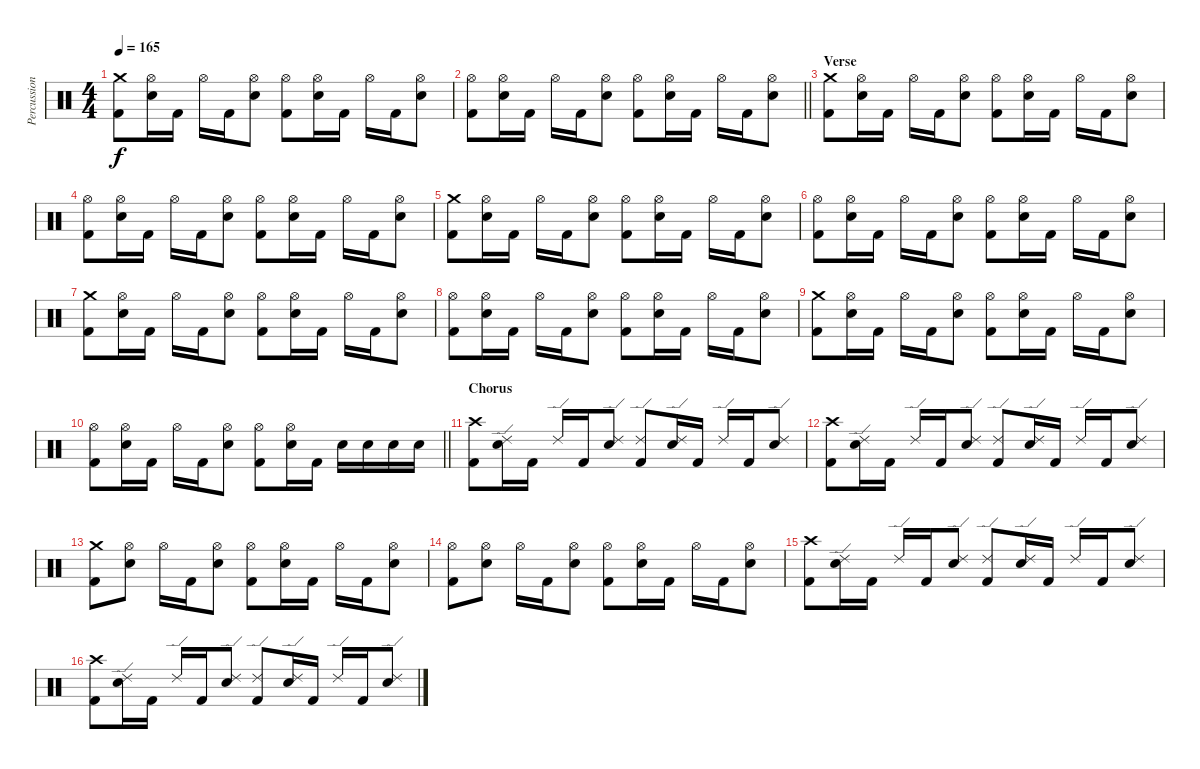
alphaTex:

\track ("Percussion" "Percussion") {instrument percussion}
\staff {score}
\articulation defaults
\ts (4 4)
\tempo 165
\clef neutral
\ks c
("Crash medium (hit)" "Kick (hit) 2").8{dy f} ("Hi-Hat (open)" "Electric Snare (hit)").16 "Kick (hit) 2".16 "Hi-Hat (open)".16 "Kick (hit) 2".16 ("Hi-Hat (open)" "Electric Snare (hit)").8 ("Hi-Hat (open)" "Kick (hit) 2").8 ("Hi-Hat (open)" "Electric Snare (hit)").16 "Kick (hit) 2".16 "Hi-Hat (open)".16 "Kick (hit) 2".16 ("Hi-Hat (open)" "Electric Snare (hit)").8 |
\barLineRight lightlight
("Hi-Hat (open)" "Kick (hit) 2").8 ("Hi-Hat (open)" "Electric Snare (hit)").16 "Kick (hit) 2".16 "Hi-Hat (open)".16 "Kick (hit) 2".16 ("Hi-Hat (open)" "Electric Snare (hit)").8 ("Hi-Hat (open)" "Kick (hit) 2").8 ("Hi-Hat (open)" "Electric Snare (hit)").16 "Kick (hit) 2".16 "Hi-Hat (open)".16 "Kick (hit) 2".16 ("Hi-Hat (open)" "Electric Snare (hit)").8 |
\section ("" "Verse")
("Crash medium (hit)" "Kick (hit) 2").8 ("Hi-Hat (open)" "Electric Snare (hit)").16 "Kick (hit) 2".16 "Hi-Hat (open)".16 "Kick (hit) 2".16 ("Hi-Hat (open)" "Electric Snare (hit)").8 ("Hi-Hat (open)" "Kick (hit) 2").8 ("Hi-Hat (open)" "Electric Snare (hit)").16 "Kick (hit) 2".16 "Hi-Hat (open)".16 "Kick (hit) 2".16 ("Hi-Hat (open)" "Electric Snare (hit)").8 |
("Hi-Hat (open)" "Kick (hit) 2").8 ("Hi-Hat (open)" "Electric Snare (hit)").16 "Kick (hit) 2".16 "Hi-Hat (open)".16 "Kick (hit) 2".16 ("Hi-Hat (open)" "Electric Snare (hit)").8 ("Hi-Hat (open)" "Kick (hit) 2").8 ("Hi-Hat (open)" "Electric Snare (hit)").16 "Kick (hit) 2".16 "Hi-Hat (open)".16 "Kick (hit) 2".16 ("Hi-Hat (open)" "Electric Snare (hit)").8 |
("Crash medium (hit)" "Kick (hit) 2").8 ("Hi-Hat (open)" "Electric Snare (hit)").16 "Kick (hit) 2".16 "Hi-Hat (open)".16 "Kick (hit) 2".16 ("Hi-Hat (open)" "Electric Snare (hit)").8 ("Hi-Hat (open)" "Kick (hit) 2").8 ("Hi-Hat (open)" "Electric Snare (hit)").16 "Kick (hit) 2".16 "Hi-Hat (open)".16 "Kick (hit) 2".16 ("Hi-Hat (open)" "Electric Snare (hit)").8 |
("Hi-Hat (open)" "Kick (hit) 2").8 ("Hi-Hat (open)" "Electric Snare (hit)").16 "Kick (hit) 2".16 "Hi-Hat (open)".16 "Kick (hit) 2".16 ("Hi-Hat (open)" "Electric Snare (hit)").8 ("Hi-Hat (open)" "Kick (hit) 2").8 ("Hi-Hat (open)" "Electric Snare (hit)").16 "Kick (hit) 2".16 "Hi-Hat (open)".16 "Kick (hit) 2".16 ("Hi-Hat (open)" "Electric Snare (hit)").8 |
("Crash medium (hit)" "Kick (hit) 2").8 ("Hi-Hat (open)" "Electric Snare (hit)").16 "Kick (hit) 2".16 "Hi-Hat (open)".16 "Kick (hit) 2".16 ("Hi-Hat (open)" "Electric Snare (hit)").8 ("Hi-Hat (open)" "Kick (hit) 2").8 ("Hi-Hat (open)" "Electric Snare (hit)").16 "Kick (hit) 2".16 "Hi-Hat (open)".16 "Kick (hit) 2".16 ("Hi-Hat (open)" "Electric Snare (hit)").8 |
("Hi-Hat (open)" "Kick (hit) 2").8 ("Hi-Hat (open)" "Electric Snare (hit)").16 "Kick (hit) 2".16 "Hi-Hat (open)".16 "Kick (hit) 2".16 ("Hi-Hat (open)" "Electric Snare (hit)").8 ("Hi-Hat (open)" "Kick (hit) 2").8 ("Hi-Hat (open)" "Electric Snare (hit)").16 "Kick (hit) 2".16 "Hi-Hat (open)".16 "Kick (hit) 2".16 ("Hi-Hat (open)" "Electric Snare (hit)").8 |
("Crash medium (hit)" "Kick (hit) 2").8 ("Hi-Hat (open)" "Electric Snare (hit)").16 "Kick (hit) 2".16 "Hi-Hat (open)".16 "Kick (hit) 2".16 ("Hi-Hat (open)" "Electric Snare (hit)").8 ("Hi-Hat (open)" "Kick (hit) 2").8 ("Hi-Hat (open)" "Electric Snare (hit)").16 "Kick (hit) 2".16 "Hi-Hat (open)".16 "Kick (hit) 2".16 ("Hi-Hat (open)" "Electric Snare (hit)").8 |
\barLineRight lightlight
("Hi-Hat (open)" "Kick (hit) 2").8 ("Hi-Hat (open)" "Electric Snare (hit)").16 "Kick (hit) 2".16 "Hi-Hat (open)".16 "Kick (hit) 2".16 ("Hi-Hat (open)" "Electric Snare (hit)").8 ("Hi-Hat (open)" "Kick (hit) 2").8 ("Hi-Hat (open)" "Electric Snare (hit)").16 "Kick (hit) 2".16 "Electric Snare (hit)".16 "Electric Snare (hit)".16 "Electric Snare (hit)".16 "Electric Snare (hit)".16 |
\section ("" "Chorus")
("Crash high (hit)" "Kick (hit) 2").8 ("Ride (edge) 2" "Electric Snare (hit)").16 "Kick (hit) 2".16 "Ride (edge) 2".16 "Kick (hit) 2".16 ("Ride (edge) 2" "Electric Snare (hit)").8 ("Ride (edge) 2" "Kick (hit) 2").8 ("Ride (edge) 2" "Electric Snare (hit)").16 "Kick (hit) 2".16 "Ride (edge) 2".16 "Kick (hit) 2".16 ("Ride (edge) 2" "Electric Snare (hit)").8 |
("Crash high (hit)" "Kick (hit) 2").8 ("Ride (edge) 2" "Electric Snare (hit)").16 "Kick (hit) 2".16 "Ride (edge) 2".16 "Kick (hit) 2".16 ("Ride (edge) 2" "Electric Snare (hit)").8 ("Ride (edge) 2" "Kick (hit) 2").8 ("Ride (edge) 2" "Electric Snare (hit)").16 "Kick (hit) 2".16 "Ride (edge) 2".16 "Kick (hit) 2".16 ("Ride (edge) 2" "Electric Snare (hit)").8 |
("Crash medium (hit)" "Kick (hit) 2").8 ("Hi-Hat (open)" "Electric Snare (hit)").8 "Hi-Hat (open)".16 "Kick (hit) 2".16 ("Hi-Hat (open)" "Electric Snare (hit)").8 ("Hi-Hat (open)" "Kick (hit) 2").8 ("Hi-Hat (open)" "Electric Snare (hit)").16 "Kick (hit) 2".16 "Hi-Hat (open)".16 "Kick (hit) 2".16 ("Hi-Hat (open)" "Electric Snare (hit)").8 |
("Hi-Hat (open)" "Kick (hit) 2").8 ("Hi-Hat (open)" "Electric Snare (hit)").8 "Hi-Hat (open)".16 "Kick (hit) 2".16 ("Hi-Hat (open)" "Electric Snare (hit)").8 ("Hi-Hat (open)" "Kick (hit) 2").8 ("Hi-Hat (open)" "Electric Snare (hit)").16 "Kick (hit) 2".16 "Hi-Hat (open)".16 "Kick (hit) 2".16 ("Hi-Hat (open)" "Electric Snare (hit)").8 |
("Crash high (hit)" "Kick (hit) 2").8 ("Ride (edge) 2" "Electric Snare (hit)").16 "Kick (hit) 2".16 "Ride (edge) 2".16 "Kick (hit) 2".16 ("Ride (edge) 2" "Electric Snare (hit)").8 ("Ride (edge) 2" "Kick (hit) 2").8 ("Ride (edge) 2" "Electric Snare (hit)").16 "Kick (hit) 2".16 "Ride (edge) 2".16 "Kick (hit) 2".16 ("Ride (edge) 2" "Electric Snare (hit)").8 |
("Crash high (hit)" "Kick (hit) 2").8 ("Ride (edge) 2" "Electric Snare (hit)").16 "Kick (hit) 2".16 "Ride (edge) 2".16 "Kick (hit) 2".16 ("Ride (edge) 2" "Electric Snare (hit)").8 ("Ride (edge) 2" "Kick (hit) 2").8 ("Ride (edge) 2" "Electric Snare (hit)").16 "Kick (hit) 2".16 "Ride (edge) 2".16 "Kick (hit) 2".16 ("Ride (edge) 2" "Electric Snare (hit)").8
